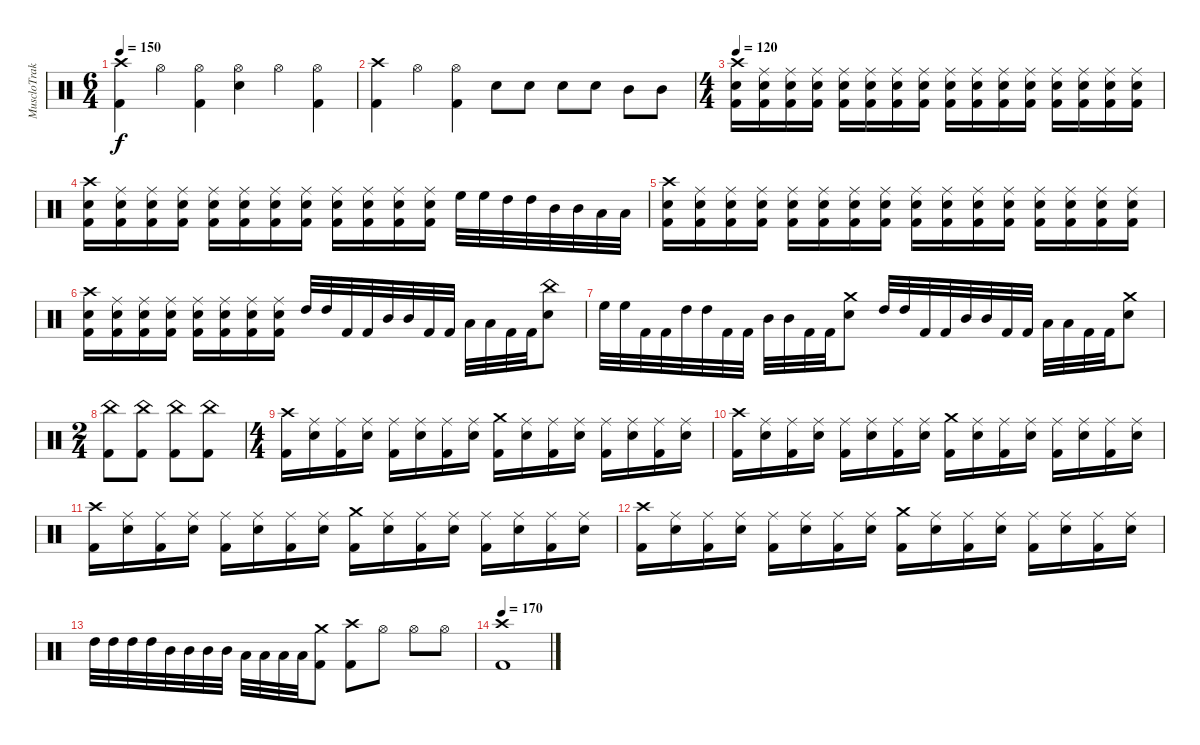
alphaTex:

\track ("MuscloTraktor" "MuscloTrak") {instrument percussion}
\staff {score}
\articulation defaults
\ts (6 4)
\tempo 150
\clef neutral
\ks c
("Kick (hit) 2" "Crash high (hit)").4{dy f} "Hi-Hat (open)".4 ("Kick (hit) 2" "Hi-Hat (open)").4 ("Electric Snare (hit)" "Hi-Hat (open)").4 "Hi-Hat (open)".4 ("Kick (hit) 2" "Hi-Hat (open)").4 |
("Kick (hit) 2" "Crash high (hit)").4 "Hi-Hat (open)".4 ("Kick (hit) 2" "Hi-Hat (open)").4 "Electric Snare (hit)".8 "Electric Snare (hit)".8 "Electric Snare (hit)".8 "Electric Snare (hit)".8 "Mid Tom (hit)".8 "Mid Tom (hit)".8 |
\ts (4 4)
\tempo 120
("Kick (hit) 2" "Electric Snare (hit)" "Crash high (hit)").16 ("Kick (hit) 2" "Electric Snare (hit)" "Ride (middle)").16 ("Kick (hit) 2" "Electric Snare (hit)" "Ride (middle)").16 ("Kick (hit) 2" "Electric Snare (hit)" "Ride (middle)").16 ("Kick (hit) 2" "Electric Snare (hit)" "Ride (middle)").16 ("Kick (hit) 2" "Electric Snare (hit)" "Ride (middle)").16 ("Kick (hit) 2" "Electric Snare (hit)" "Ride (middle)").16 ("Kick (hit) 2" "Electric Snare (hit)" "Ride (middle)").16 ("Kick (hit) 2" "Electric Snare (hit)" "Ride (middle)").16 ("Kick (hit) 2" "Electric Snare (hit)" "Ride (middle)").16 ("Kick (hit) 2" "Electric Snare (hit)" "Ride (middle)").16 ("Kick (hit) 2" "Electric Snare (hit)" "Ride (middle)").16 ("Kick (hit) 2" "Electric Snare (hit)" "Ride (middle)").16 ("Kick (hit) 2" "Electric Snare (hit)" "Ride (middle)").16 ("Kick (hit) 2" "Electric Snare (hit)" "Ride (middle)").16 ("Kick (hit) 2" "Electric Snare (hit)" "Ride (middle)").16 |
("Kick (hit) 2" "Electric Snare (hit)" "Crash high (hit)").16 ("Kick (hit) 2" "Electric Snare (hit)" "Ride (middle)").16 ("Kick (hit) 2" "Electric Snare (hit)" "Ride (middle)").16 ("Kick (hit) 2" "Electric Snare (hit)" "Ride (middle)").16 ("Kick (hit) 2" "Electric Snare (hit)" "Ride (middle)").16 ("Kick (hit) 2" "Electric Snare (hit)" "Ride (middle)").16 ("Kick (hit) 2" "Electric Snare (hit)" "Ride (middle)").16 ("Kick (hit) 2" "Electric Snare (hit)" "Ride (middle)").16 ("Kick (hit) 2" "Electric Snare (hit)" "Ride (middle)").16 ("Kick (hit) 2" "Electric Snare (hit)" "Ride (middle)").16 ("Kick (hit) 2" "Electric Snare (hit)" "Ride (middle)").16 ("Kick (hit) 2" "Electric Snare (hit)" "Ride (middle)").16 "High Floor Tom (hit)".32 "High Floor Tom (hit)".32 "High Tom (hit)".32 "High Tom (hit)".32 "Mid Tom (hit)".32 "Mid Tom (hit)".32 "Low Tom (hit)".32 "Low Tom (hit)".32 |
("Kick (hit) 2" "Electric Snare (hit)" "Crash high (hit)").16 ("Kick (hit) 2" "Electric Snare (hit)" "Ride (middle)").16 ("Kick (hit) 2" "Electric Snare (hit)" "Ride (middle)").16 ("Kick (hit) 2" "Electric Snare (hit)" "Ride (middle)").16 ("Kick (hit) 2" "Electric Snare (hit)" "Ride (middle)").16 ("Kick (hit) 2" "Electric Snare (hit)" "Ride (middle)").16 ("Kick (hit) 2" "Electric Snare (hit)" "Ride (middle)").16 ("Kick (hit) 2" "Electric Snare (hit)" "Ride (middle)").16 ("Kick (hit) 2" "Electric Snare (hit)" "Ride (middle)").16 ("Kick (hit) 2" "Electric Snare (hit)" "Ride (middle)").16 ("Kick (hit) 2" "Electric Snare (hit)" "Ride (middle)").16 ("Kick (hit) 2" "Electric Snare (hit)" "Ride (middle)").16 ("Kick (hit) 2" "Electric Snare (hit)" "Ride (middle)").16 ("Kick (hit) 2" "Electric Snare (hit)" "Ride (middle)").16 ("Kick (hit) 2" "Electric Snare (hit)" "Ride (middle)").16 ("Kick (hit) 2" "Electric Snare (hit)" "Ride (middle)").16 |
("Kick (hit) 2" "Electric Snare (hit)" "Crash high (hit)").16 ("Kick (hit) 2" "Electric Snare (hit)" "Ride (middle)").16 ("Kick (hit) 2" "Electric Snare (hit)" "Ride (middle)").16 ("Kick (hit) 2" "Electric Snare (hit)" "Ride (middle)").16 ("Kick (hit) 2" "Electric Snare (hit)" "Ride (middle)").16 ("Kick (hit) 2" "Electric Snare (hit)" "Ride (middle)").16 ("Kick (hit) 2" "Electric Snare (hit)" "Ride (middle)").16 ("Kick (hit) 2" "Electric Snare (hit)" "Ride (middle)").16 "High Tom (hit)".32 "High Tom (hit)".32 "Kick (hit) 2".32 "Kick (hit) 2".32 "Mid Tom (hit)".32 "Mid Tom (hit)".32 "Kick (hit) 2".32 "Kick (hit) 2".32 "Low Tom (hit)".32 "Low Tom (hit)".32 "Kick (hit) 2".32 "Kick (hit) 2".32 ("Electric Snare (hit)" "China (hit)").8 |
"High Floor Tom (hit)".32 "High Floor Tom (hit)".32 "Kick (hit) 2".32 "Kick (hit) 2".32 "High Tom (hit)".32 "High Tom (hit)".32 "Kick (hit) 2".32 "Kick (hit) 2".32 "Mid Tom (hit)".32 "Mid Tom (hit)".32 "Kick (hit) 2".32 "Kick (hit) 2".32 ("Electric Snare (hit)" "Crash medium (hit)").8 "High Tom (hit)".32 "High Tom (hit)".32 "Kick (hit) 2".32 "Kick (hit) 2".32 "Mid Tom (hit)".32 "Mid Tom (hit)".32 "Kick (hit) 2".32 "Kick (hit) 2".32 "Low Tom (hit)".32 "Low Tom (hit)".32 "Kick (hit) 2".32 "Kick (hit) 2".32 ("Electric Snare (hit)" "Crash medium (hit)").8 |
\ts (2 4)
("Kick (hit) 2" "China (hit)").8 ("Kick (hit) 2" "China (hit)").8 ("Kick (hit) 2" "China (hit)").8 ("Kick (hit) 2" "China (hit)").8 |
\ts (4 4)
("Kick (hit) 2" "Crash high (hit)").16 ("Electric Snare (hit)" "Ride (middle)").16 ("Kick (hit) 2" "Ride (middle)").16 ("Electric Snare (hit)" "Ride (middle)").16 ("Kick (hit) 2" "Ride (middle)").16 ("Electric Snare (hit)" "Ride (middle)").16 ("Kick (hit) 2" "Ride (middle)").16 ("Electric Snare (hit)" "Ride (middle)").16 ("Kick (hit) 2" "Crash medium (hit)").16 ("Electric Snare (hit)" "Ride (middle)").16 ("Kick (hit) 2" "Ride (middle)").16 ("Electric Snare (hit)" "Ride (middle)").16 ("Kick (hit) 2" "Ride (middle)").16 ("Electric Snare (hit)" "Ride (middle)").16 ("Kick (hit) 2" "Ride (middle)").16 ("Electric Snare (hit)" "Ride (middle)").16 |
("Kick (hit) 2" "Crash high (hit)").16 ("Electric Snare (hit)" "Ride (middle)").16 ("Kick (hit) 2" "Ride (middle)").16 ("Electric Snare (hit)" "Ride (middle)").16 ("Kick (hit) 2" "Ride (middle)").16 ("Electric Snare (hit)" "Ride (middle)").16 ("Kick (hit) 2" "Ride (middle)").16 ("Electric Snare (hit)" "Ride (middle)").16 ("Kick (hit) 2" "Crash medium (hit)").16 ("Electric Snare (hit)" "Ride (middle)").16 ("Kick (hit) 2" "Ride (middle)").16 ("Electric Snare (hit)" "Ride (middle)").16 ("Kick (hit) 2" "Ride (middle)").16 ("Electric Snare (hit)" "Ride (middle)").16 ("Kick (hit) 2" "Ride (middle)").16 ("Electric Snare (hit)" "Ride (middle)").16 |
("Kick (hit) 2" "Crash high (hit)").16 ("Electric Snare (hit)" "Ride (middle)").16 ("Kick (hit) 2" "Ride (middle)").16 ("Electric Snare (hit)" "Ride (middle)").16 ("Kick (hit) 2" "Ride (middle)").16 ("Electric Snare (hit)" "Ride (middle)").16 ("Kick (hit) 2" "Ride (middle)").16 ("Electric Snare (hit)" "Ride (middle)").16 ("Kick (hit) 2" "Crash medium (hit)").16 ("Electric Snare (hit)" "Ride (middle)").16 ("Kick (hit) 2" "Ride (middle)").16 ("Electric Snare (hit)" "Ride (middle)").16 ("Kick (hit) 2" "Ride (middle)").16 ("Electric Snare (hit)" "Ride (middle)").16 ("Kick (hit) 2" "Ride (middle)").16 ("Electric Snare (hit)" "Ride (middle)").16 |
("Kick (hit) 2" "Crash high (hit)").16 ("Electric Snare (hit)" "Ride (middle)").16 ("Kick (hit) 2" "Ride (middle)").16 ("Electric Snare (hit)" "Ride (middle)").16 ("Kick (hit) 2" "Ride (middle)").16 ("Electric Snare (hit)" "Ride (middle)").16 ("Kick (hit) 2" "Ride (middle)").16 ("Electric Snare (hit)" "Ride (middle)").16 ("Kick (hit) 2" "Crash medium (hit)").16 ("Electric Snare (hit)" "Ride (middle)").16 ("Kick (hit) 2" "Ride (middle)").16 ("Electric Snare (hit)" "Ride (middle)").16 ("Kick (hit) 2" "Ride (middle)").16 ("Electric Snare (hit)" "Ride (middle)").16 ("Kick (hit) 2" "Ride (middle)").16 ("Electric Snare (hit)" "Ride (middle)").16 |
"High Tom (hit)".32 "High Tom (hit)".32 "High Tom (hit)".32 "High Tom (hit)".32 "Mid Tom (hit)".32 "Mid Tom (hit)".32 "Mid Tom (hit)".32 "Mid Tom (hit)".32 "Low Tom (hit)".32 "Low Tom (hit)".32 "Low Tom (hit)".32 "Low Tom (hit)".32 ("Kick (hit) 2" "Crash medium (hit)").8 ("Kick (hit) 2" "Crash high (hit)").8 "Hi-Hat (open)".8 "Hi-Hat (open)".8 "Hi-Hat (open)".8 |
\tempo 170
("Kick (hit) 2" "Crash high (hit)").1
